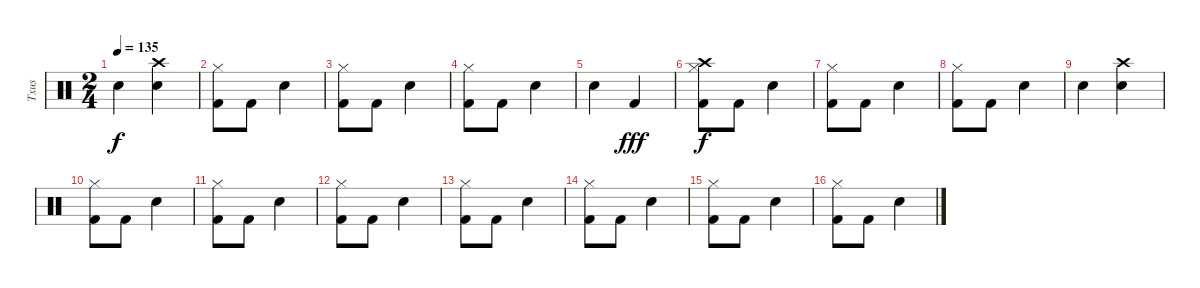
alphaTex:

\track ("Txus" "Txus") {instrument percussion}
\staff {score}
\articulation defaults
\ts (2 4)
\tempo 135
\clef neutral
\ks c "Snare (hit) 2".4{dy f}
("Crash high (hit)" "Snare (hit) 2").4 |
("Hi-Hat (closed)" "Kick (hit) 2").8 "Kick (hit) 2".8 "Snare (hit) 2".4 |
("Hi-Hat (closed)" "Kick (hit) 2").8 "Kick (hit) 2".8 "Snare (hit) 2".4 |
("Hi-Hat (closed)" "Kick (hit) 2").8 "Kick (hit) 2".8 "Snare (hit) 2".4 |
"Snare (hit) 2".4 "Kick (hit) 2".4{dy fff} |
("Crash high (hit)" "Hi-Hat (closed)" "Kick (hit) 2").8{dy f} "Kick (hit) 2".8 "Snare (hit) 2".4 |
("Hi-Hat (closed)" "Kick (hit) 2").8 "Kick (hit) 2".8 "Snare (hit) 2".4 |
("Hi-Hat (closed)" "Kick (hit) 2").8 "Kick (hit) 2".8 "Snare (hit) 2".4 |
"Snare (hit) 2".4 ("Crash high (hit)" "Snare (hit) 2").4 |
("Hi-Hat (closed)" "Kick (hit) 2").8 "Kick (hit) 2".8 "Snare (hit) 2".4 |
("Hi-Hat (closed)" "Kick (hit) 2").8 "Kick (hit) 2".8 "Snare (hit) 2".4 |
("Hi-Hat (closed)" "Kick (hit) 2").8 "Kick (hit) 2".8 "Snare (hit) 2".4 |
("Hi-Hat (closed)" "Kick (hit) 2").8 "Kick (hit) 2".8 "Snare (hit) 2".4 |
("Hi-Hat (closed)" "Kick (hit) 2").8 "Kick (hit) 2".8 "Snare (hit) 2".4 |
("Hi-Hat (closed)" "Kick (hit) 2").8 "Kick (hit) 2".8 "Snare (hit) 2".4 |
("Hi-Hat (closed)" "Kick (hit) 2").8 "Kick (hit) 2".8 "Snare (hit) 2".4
